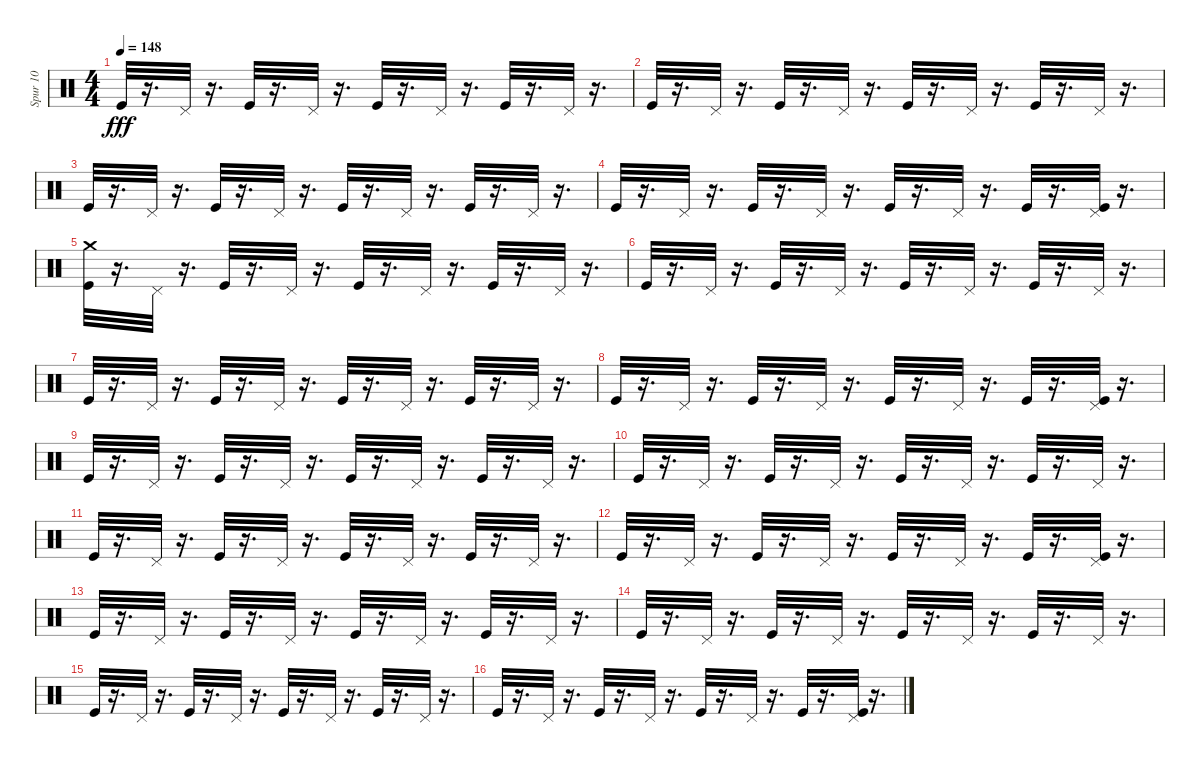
\track ("Spur 10" "Spur 10") {instrument percussion}
\staff {score}
\articulation defaults
\ts (4 4)
\tempo 148
\clef neutral
\ks c "Kick (hit)".32{dy fff}
r.16{d} "Pedal Hi-Hat (hit)".32 r.16{d} "Kick (hit)".32 r.16{d} "Pedal Hi-Hat (hit)".32 r.16{d} "Kick (hit)".32 r.16{d} "Pedal Hi-Hat (hit)".32 r.16{d} "Kick (hit)".32 r.16{d} "Pedal Hi-Hat (hit)".32 r.16{d} |
"Kick (hit)".32 r.16{d} "Pedal Hi-Hat (hit)".32 r.16{d} "Kick (hit)".32 r.16{d} "Pedal Hi-Hat (hit)".32 r.16{d} "Kick (hit)".32 r.16{d} "Pedal Hi-Hat (hit)".32 r.16{d} "Kick (hit)".32 r.16{d} "Pedal Hi-Hat (hit)".32 r.16{d} |
"Kick (hit)".32 r.16{d} "Pedal Hi-Hat (hit)".32 r.16{d} "Kick (hit)".32 r.16{d} "Pedal Hi-Hat (hit)".32 r.16{d} "Kick (hit)".32 r.16{d} "Pedal Hi-Hat (hit)".32 r.16{d} "Kick (hit)".32 r.16{d} "Pedal Hi-Hat (hit)".32 r.16{d} |
"Kick (hit)".32 r.16{d} "Pedal Hi-Hat (hit)".32 r.16{d} "Kick (hit)".32 r.16{d} "Pedal Hi-Hat (hit)".32 r.16{d} "Kick (hit)".32 r.16{d} "Pedal Hi-Hat (hit)".32 r.16{d} "Kick (hit)".32 r.16{d} ("Kick (hit)" "Pedal Hi-Hat (hit)").32 r.16{d} |
("Kick (hit)" "Crash medium (hit)").32 r.16{d} "Pedal Hi-Hat (hit)".32 r.16{d} "Kick (hit)".32 r.16{d} "Pedal Hi-Hat (hit)".32 r.16{d} "Kick (hit)".32 r.16{d} "Pedal Hi-Hat (hit)".32 r.16{d} "Kick (hit)".32 r.16{d} "Pedal Hi-Hat (hit)".32 r.16{d} |
"Kick (hit)".32 r.16{d} "Pedal Hi-Hat (hit)".32 r.16{d} "Kick (hit)".32 r.16{d} "Pedal Hi-Hat (hit)".32 r.16{d} "Kick (hit)".32 r.16{d} "Pedal Hi-Hat (hit)".32 r.16{d} "Kick (hit)".32 r.16{d} "Pedal Hi-Hat (hit)".32 r.16{d} |
"Kick (hit)".32 r.16{d} "Pedal Hi-Hat (hit)".32 r.16{d} "Kick (hit)".32 r.16{d} "Pedal Hi-Hat (hit)".32 r.16{d} "Kick (hit)".32 r.16{d} "Pedal Hi-Hat (hit)".32 r.16{d} "Kick (hit)".32 r.16{d} "Pedal Hi-Hat (hit)".32 r.16{d} |
"Kick (hit)".32 r.16{d} "Pedal Hi-Hat (hit)".32 r.16{d} "Kick (hit)".32 r.16{d} "Pedal Hi-Hat (hit)".32 r.16{d} "Kick (hit)".32 r.16{d} "Pedal Hi-Hat (hit)".32 r.16{d} "Kick (hit)".32 r.16{d} ("Kick (hit)" "Pedal Hi-Hat (hit)").32 r.16{d} |
"Kick (hit)".32 r.16{d} "Pedal Hi-Hat (hit)".32 r.16{d} "Kick (hit)".32 r.16{d} "Pedal Hi-Hat (hit)".32 r.16{d} "Kick (hit)".32 r.16{d} "Pedal Hi-Hat (hit)".32 r.16{d} "Kick (hit)".32 r.16{d} "Pedal Hi-Hat (hit)".32 r.16{d} |
"Kick (hit)".32 r.16{d} "Pedal Hi-Hat (hit)".32 r.16{d} "Kick (hit)".32 r.16{d} "Pedal Hi-Hat (hit)".32 r.16{d} "Kick (hit)".32 r.16{d} "Pedal Hi-Hat (hit)".32 r.16{d} "Kick (hit)".32 r.16{d} "Pedal Hi-Hat (hit)".32 r.16{d} |
"Kick (hit)".32 r.16{d} "Pedal Hi-Hat (hit)".32 r.16{d} "Kick (hit)".32 r.16{d} "Pedal Hi-Hat (hit)".32 r.16{d} "Kick (hit)".32 r.16{d} "Pedal Hi-Hat (hit)".32 r.16{d} "Kick (hit)".32 r.16{d} "Pedal Hi-Hat (hit)".32 r.16{d} |
"Kick (hit)".32 r.16{d} "Pedal Hi-Hat (hit)".32 r.16{d} "Kick (hit)".32 r.16{d} "Pedal Hi-Hat (hit)".32 r.16{d} "Kick (hit)".32 r.16{d} "Pedal Hi-Hat (hit)".32 r.16{d} "Kick (hit)".32 r.16{d} ("Kick (hit)" "Pedal Hi-Hat (hit)").32 r.16{d} |
"Kick (hit)".32 r.16{d} "Pedal Hi-Hat (hit)".32 r.16{d} "Kick (hit)".32 r.16{d} "Pedal Hi-Hat (hit)".32 r.16{d} "Kick (hit)".32 r.16{d} "Pedal Hi-Hat (hit)".32 r.16{d} "Kick (hit)".32 r.16{d} "Pedal Hi-Hat (hit)".32 r.16{d} |
"Kick (hit)".32 r.16{d} "Pedal Hi-Hat (hit)".32 r.16{d} "Kick (hit)".32 r.16{d} "Pedal Hi-Hat (hit)".32 r.16{d} "Kick (hit)".32 r.16{d} "Pedal Hi-Hat (hit)".32 r.16{d} "Kick (hit)".32 r.16{d} "Pedal Hi-Hat (hit)".32 r.16{d} |
"Kick (hit)".32 r.16{d} "Pedal Hi-Hat (hit)".32 r.16{d} "Kick (hit)".32 r.16{d} "Pedal Hi-Hat (hit)".32 r.16{d} "Kick (hit)".32 r.16{d} "Pedal Hi-Hat (hit)".32 r.16{d} "Kick (hit)".32 r.16{d} "Pedal Hi-Hat (hit)".32 r.16{d} |
"Kick (hit)".32 r.16{d} "Pedal Hi-Hat (hit)".32 r.16{d} "Kick (hit)".32 r.16{d} "Pedal Hi-Hat (hit)".32 r.16{d} "Kick (hit)".32 r.16{d} "Pedal Hi-Hat (hit)".32 r.16{d} "Kick (hit)".32 r.16{d} ("Kick (hit)" "Pedal Hi-Hat (hit)").32 r.16{d}
